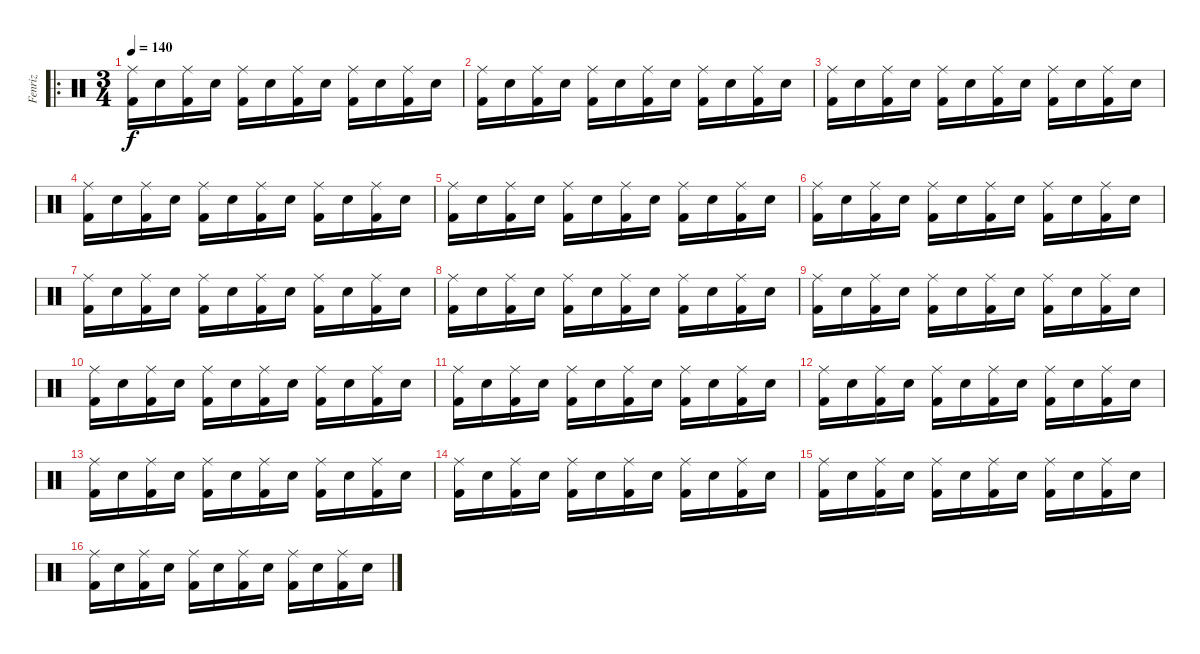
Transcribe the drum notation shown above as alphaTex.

\track ("Fenriz" "Fenriz") {instrument percussion}
\staff {score}
\articulation defaults
\ro
\ts (3 4)
\tempo 140
\clef neutral
\ks c
("Ride (middle)" "Kick (hit) 2").16{dy f} "Snare (hit) 2".16 ("Ride (middle)" "Kick (hit) 2").16 "Snare (hit) 2".16 ("Ride (middle)" "Kick (hit) 2").16 "Snare (hit) 2".16 ("Ride (middle)" "Kick (hit) 2").16 "Snare (hit) 2".16 ("Ride (middle)" "Kick (hit) 2").16 "Snare (hit) 2".16 ("Ride (middle)" "Kick (hit) 2").16 "Snare (hit) 2".16 |
("Ride (middle)" "Kick (hit) 2").16 "Snare (hit) 2".16 ("Ride (middle)" "Kick (hit) 2").16 "Snare (hit) 2".16 ("Ride (middle)" "Kick (hit) 2").16 "Snare (hit) 2".16 ("Ride (middle)" "Kick (hit) 2").16 "Snare (hit) 2".16 ("Ride (middle)" "Kick (hit) 2").16 "Snare (hit) 2".16 ("Ride (middle)" "Kick (hit) 2").16 "Snare (hit) 2".16 |
("Ride (middle)" "Kick (hit) 2").16 "Snare (hit) 2".16 ("Ride (middle)" "Kick (hit) 2").16 "Snare (hit) 2".16 ("Ride (middle)" "Kick (hit) 2").16 "Snare (hit) 2".16 ("Ride (middle)" "Kick (hit) 2").16 "Snare (hit) 2".16 ("Ride (middle)" "Kick (hit) 2").16 "Snare (hit) 2".16 ("Ride (middle)" "Kick (hit) 2").16 "Snare (hit) 2".16 |
("Ride (middle)" "Kick (hit) 2").16 "Snare (hit) 2".16 ("Ride (middle)" "Kick (hit) 2").16 "Snare (hit) 2".16 ("Ride (middle)" "Kick (hit) 2").16 "Snare (hit) 2".16 ("Ride (middle)" "Kick (hit) 2").16 "Snare (hit) 2".16 ("Ride (middle)" "Kick (hit) 2").16 "Snare (hit) 2".16 ("Ride (middle)" "Kick (hit) 2").16 "Snare (hit) 2".16 |
("Ride (middle)" "Kick (hit) 2").16 "Snare (hit) 2".16 ("Ride (middle)" "Kick (hit) 2").16 "Snare (hit) 2".16 ("Ride (middle)" "Kick (hit) 2").16 "Snare (hit) 2".16 ("Ride (middle)" "Kick (hit) 2").16 "Snare (hit) 2".16 ("Ride (middle)" "Kick (hit) 2").16 "Snare (hit) 2".16 ("Ride (middle)" "Kick (hit) 2").16 "Snare (hit) 2".16 |
("Ride (middle)" "Kick (hit) 2").16 "Snare (hit) 2".16 ("Ride (middle)" "Kick (hit) 2").16 "Snare (hit) 2".16 ("Ride (middle)" "Kick (hit) 2").16 "Snare (hit) 2".16 ("Ride (middle)" "Kick (hit) 2").16 "Snare (hit) 2".16 ("Ride (middle)" "Kick (hit) 2").16 "Snare (hit) 2".16 ("Ride (middle)" "Kick (hit) 2").16 "Snare (hit) 2".16 |
("Ride (middle)" "Kick (hit) 2").16 "Snare (hit) 2".16 ("Ride (middle)" "Kick (hit) 2").16 "Snare (hit) 2".16 ("Ride (middle)" "Kick (hit) 2").16 "Snare (hit) 2".16 ("Ride (middle)" "Kick (hit) 2").16 "Snare (hit) 2".16 ("Ride (middle)" "Kick (hit) 2").16 "Snare (hit) 2".16 ("Ride (middle)" "Kick (hit) 2").16 "Snare (hit) 2".16 |
("Ride (middle)" "Kick (hit) 2").16 "Snare (hit) 2".16 ("Ride (middle)" "Kick (hit) 2").16 "Snare (hit) 2".16 ("Ride (middle)" "Kick (hit) 2").16 "Snare (hit) 2".16 ("Ride (middle)" "Kick (hit) 2").16 "Snare (hit) 2".16 ("Ride (middle)" "Kick (hit) 2").16 "Snare (hit) 2".16 ("Ride (middle)" "Kick (hit) 2").16 "Snare (hit) 2".16 |
("Ride (middle)" "Kick (hit) 2").16 "Snare (hit) 2".16 ("Ride (middle)" "Kick (hit) 2").16 "Snare (hit) 2".16 ("Ride (middle)" "Kick (hit) 2").16 "Snare (hit) 2".16 ("Ride (middle)" "Kick (hit) 2").16 "Snare (hit) 2".16 ("Ride (middle)" "Kick (hit) 2").16 "Snare (hit) 2".16 ("Ride (middle)" "Kick (hit) 2").16 "Snare (hit) 2".16 |
("Ride (middle)" "Kick (hit) 2").16 "Snare (hit) 2".16 ("Ride (middle)" "Kick (hit) 2").16 "Snare (hit) 2".16 ("Ride (middle)" "Kick (hit) 2").16 "Snare (hit) 2".16 ("Ride (middle)" "Kick (hit) 2").16 "Snare (hit) 2".16 ("Ride (middle)" "Kick (hit) 2").16 "Snare (hit) 2".16 ("Ride (middle)" "Kick (hit) 2").16 "Snare (hit) 2".16 |
("Ride (middle)" "Kick (hit) 2").16 "Snare (hit) 2".16 ("Ride (middle)" "Kick (hit) 2").16 "Snare (hit) 2".16 ("Ride (middle)" "Kick (hit) 2").16 "Snare (hit) 2".16 ("Ride (middle)" "Kick (hit) 2").16 "Snare (hit) 2".16 ("Ride (middle)" "Kick (hit) 2").16 "Snare (hit) 2".16 ("Ride (middle)" "Kick (hit) 2").16 "Snare (hit) 2".16 |
("Ride (middle)" "Kick (hit) 2").16 "Snare (hit) 2".16 ("Ride (middle)" "Kick (hit) 2").16 "Snare (hit) 2".16 ("Ride (middle)" "Kick (hit) 2").16 "Snare (hit) 2".16 ("Ride (middle)" "Kick (hit) 2").16 "Snare (hit) 2".16 ("Ride (middle)" "Kick (hit) 2").16 "Snare (hit) 2".16 ("Ride (middle)" "Kick (hit) 2").16 "Snare (hit) 2".16 |
("Ride (middle)" "Kick (hit) 2").16 "Snare (hit) 2".16 ("Ride (middle)" "Kick (hit) 2").16 "Snare (hit) 2".16 ("Ride (middle)" "Kick (hit) 2").16 "Snare (hit) 2".16 ("Ride (middle)" "Kick (hit) 2").16 "Snare (hit) 2".16 ("Ride (middle)" "Kick (hit) 2").16 "Snare (hit) 2".16 ("Ride (middle)" "Kick (hit) 2").16 "Snare (hit) 2".16 |
("Ride (middle)" "Kick (hit) 2").16 "Snare (hit) 2".16 ("Ride (middle)" "Kick (hit) 2").16 "Snare (hit) 2".16 ("Ride (middle)" "Kick (hit) 2").16 "Snare (hit) 2".16 ("Ride (middle)" "Kick (hit) 2").16 "Snare (hit) 2".16 ("Ride (middle)" "Kick (hit) 2").16 "Snare (hit) 2".16 ("Ride (middle)" "Kick (hit) 2").16 "Snare (hit) 2".16 |
("Ride (middle)" "Kick (hit) 2").16 "Snare (hit) 2".16 ("Ride (middle)" "Kick (hit) 2").16 "Snare (hit) 2".16 ("Ride (middle)" "Kick (hit) 2").16 "Snare (hit) 2".16 ("Ride (middle)" "Kick (hit) 2").16 "Snare (hit) 2".16 ("Ride (middle)" "Kick (hit) 2").16 "Snare (hit) 2".16 ("Ride (middle)" "Kick (hit) 2").16 "Snare (hit) 2".16 |
("Ride (middle)" "Kick (hit) 2").16 "Snare (hit) 2".16 ("Ride (middle)" "Kick (hit) 2").16 "Snare (hit) 2".16 ("Ride (middle)" "Kick (hit) 2").16 "Snare (hit) 2".16 ("Ride (middle)" "Kick (hit) 2").16 "Snare (hit) 2".16 ("Ride (middle)" "Kick (hit) 2").16 "Snare (hit) 2".16 ("Ride (middle)" "Kick (hit) 2").16 "Snare (hit) 2".16
